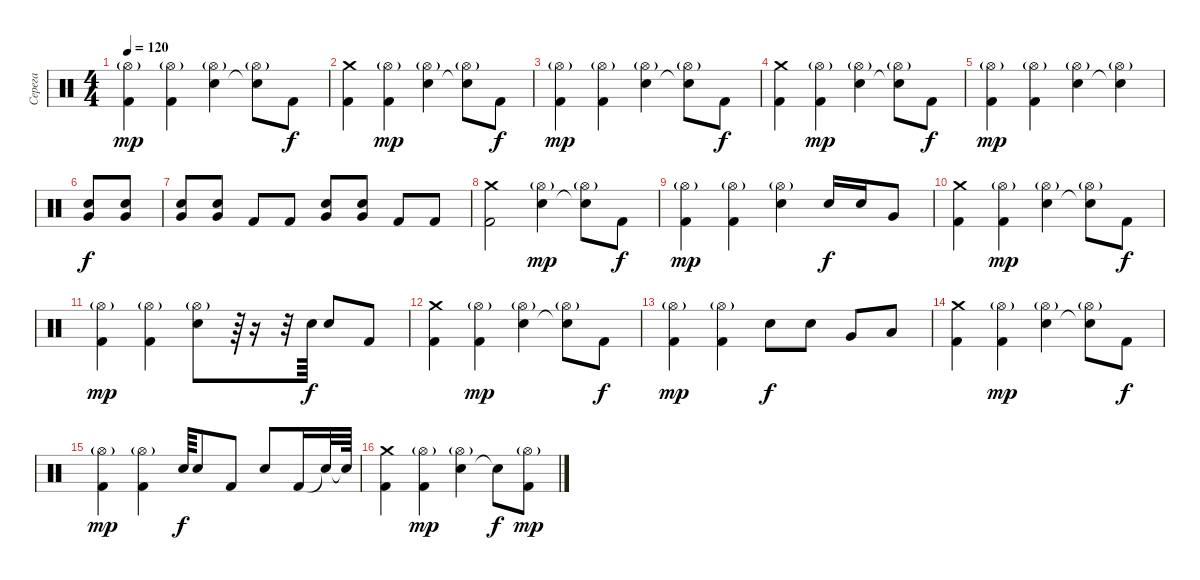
\track ("Серега" "Серега") {instrument percussion}
\staff {score}
\articulation defaults
\ts (4 4)
\tempo 120
\clef neutral
\ks c
("Kick (hit) 2" "Hi-Hat (open)"{g}).4{dy mp} ("Kick (hit) 2" "Hi-Hat (open)"{g}).4 ("Electric Snare (hit)" "Hi-Hat (open)"{g}).4 ("Snare (hit)"{t} "Hi-Hat (open)"{g}).8 "Kick (hit) 2".8{dy f} |
("Kick (hit) 2" "Crash medium (hit)").4 ("Kick (hit) 2" "Hi-Hat (open)"{g}).4{dy mp} ("Electric Snare (hit)" "Hi-Hat (open)"{g}).4 ("Snare (hit)"{t} "Hi-Hat (open)"{g}).8 "Kick (hit) 2".8{dy f} |
("Kick (hit) 2" "Hi-Hat (open)"{g}).4{dy mp} ("Kick (hit) 2" "Hi-Hat (open)"{g}).4 ("Electric Snare (hit)" "Hi-Hat (open)"{g}).4 ("Snare (hit)"{t} "Hi-Hat (open)"{g}).8 "Kick (hit) 2".8{dy f} |
("Kick (hit) 2" "Crash medium (hit)").4 ("Kick (hit) 2" "Hi-Hat (open)"{g}).4{dy mp} ("Electric Snare (hit)" "Hi-Hat (open)"{g}).4 ("Snare (hit)"{t} "Hi-Hat (open)"{g}).8 "Kick (hit) 2".8{dy f} |
("Kick (hit) 2" "Hi-Hat (open)"{g}).4{dy mp} ("Kick (hit) 2" "Hi-Hat (open)"{g}).4 ("Electric Snare (hit)" "Hi-Hat (open)"{g}).4 ("Snare (hit)"{t} "Hi-Hat (open)"{g}).4 |
("Electric Snare (hit)" "Very Low Tom (hit)").8{dy f} ("Electric Snare (hit)" "Very Low Tom (hit)").8 |
("Electric Snare (hit)" "Very Low Tom (hit)").8 ("Electric Snare (hit)" "Very Low Tom (hit)").8 "Kick (hit) 2".8 "Kick (hit) 2".8 ("Electric Snare (hit)" "Very Low Tom (hit)").8 ("Electric Snare (hit)" "Very Low Tom (hit)").8 "Kick (hit) 2".8 "Kick (hit) 2".8 |
("Kick (hit) 2" "Crash medium (hit)").2 ("Electric Snare (hit)" "Hi-Hat (open)"{g}).4{dy mp} ("Snare (hit)"{t} "Hi-Hat (open)"{g}).8 "Kick (hit) 2".8{dy f} |
("Kick (hit) 2" "Hi-Hat (open)"{g}).4{dy mp} ("Kick (hit) 2" "Hi-Hat (open)"{g}).4 ("Electric Snare (hit)" "Hi-Hat (open)"{g}).4 "Electric Snare (hit)".16{dy f} "Electric Snare (hit)".16 "Very Low Tom (hit)".8 |
("Kick (hit) 2" "Crash medium (hit)").4 ("Kick (hit) 2" "Hi-Hat (open)"{g}).4{dy mp} ("Electric Snare (hit)" "Hi-Hat (open)"{g}).4 ("Snare (hit)"{t} "Hi-Hat (open)"{g}).8 "Kick (hit) 2".8{dy f} |
("Kick (hit) 2" "Hi-Hat (open)"{g}).4{dy mp} ("Kick (hit) 2" "Hi-Hat (open)"{g}).4 ("Electric Snare (hit)" "Hi-Hat (open)"{g}).8 r.64 r.16 r.32 "Electric Snare (hit)".64{dy f} "Electric Snare (hit)".8 "Kick (hit) 2".8 |
("Kick (hit) 2" "Crash medium (hit)").4 ("Kick (hit) 2" "Hi-Hat (open)"{g}).4{dy mp} ("Electric Snare (hit)" "Hi-Hat (open)"{g}).4 ("Snare (hit)"{t} "Hi-Hat (open)"{g}).8 "Kick (hit) 2".8{dy f} |
("Kick (hit) 2" "Hi-Hat (open)"{g}).4{dy mp} ("Kick (hit) 2" "Hi-Hat (open)"{g}).4 "Electric Snare (hit)".8{dy f} "Electric Snare (hit)".8 "Very Low Tom (hit)".8 "Low Tom (hit)".8 |
("Kick (hit) 2" "Crash medium (hit)").4 ("Kick (hit) 2" "Hi-Hat (open)"{g}).4{dy mp} ("Electric Snare (hit)" "Hi-Hat (open)"{g}).4 ("Snare (hit)"{t} "Hi-Hat (open)"{g}).8 "Kick (hit) 2".8{dy f} |
("Kick (hit) 2" "Hi-Hat (open)"{g}).4{dy mp} ("Kick (hit) 2" "Hi-Hat (open)"{g}).4 "Electric Snare (hit)".64{dy f} "Electric Snare (hit)".8 "Kick (hit) 2".8 "Electric Snare (hit)".8 "Kick (hit) 2".16 "Snare (hit)"{t}.32 "Snare (hit)"{t}.64 |
("Kick (hit) 2" "Crash medium (hit)").4 ("Kick (hit) 2" "Hi-Hat (open)"{g}).4{dy mp} ("Electric Snare (hit)" "Hi-Hat (open)"{g}).4 "Snare (hit)"{t}.8{dy f} ("Kick (hit) 2" "Hi-Hat (open)"{g}).8{dy mp}
